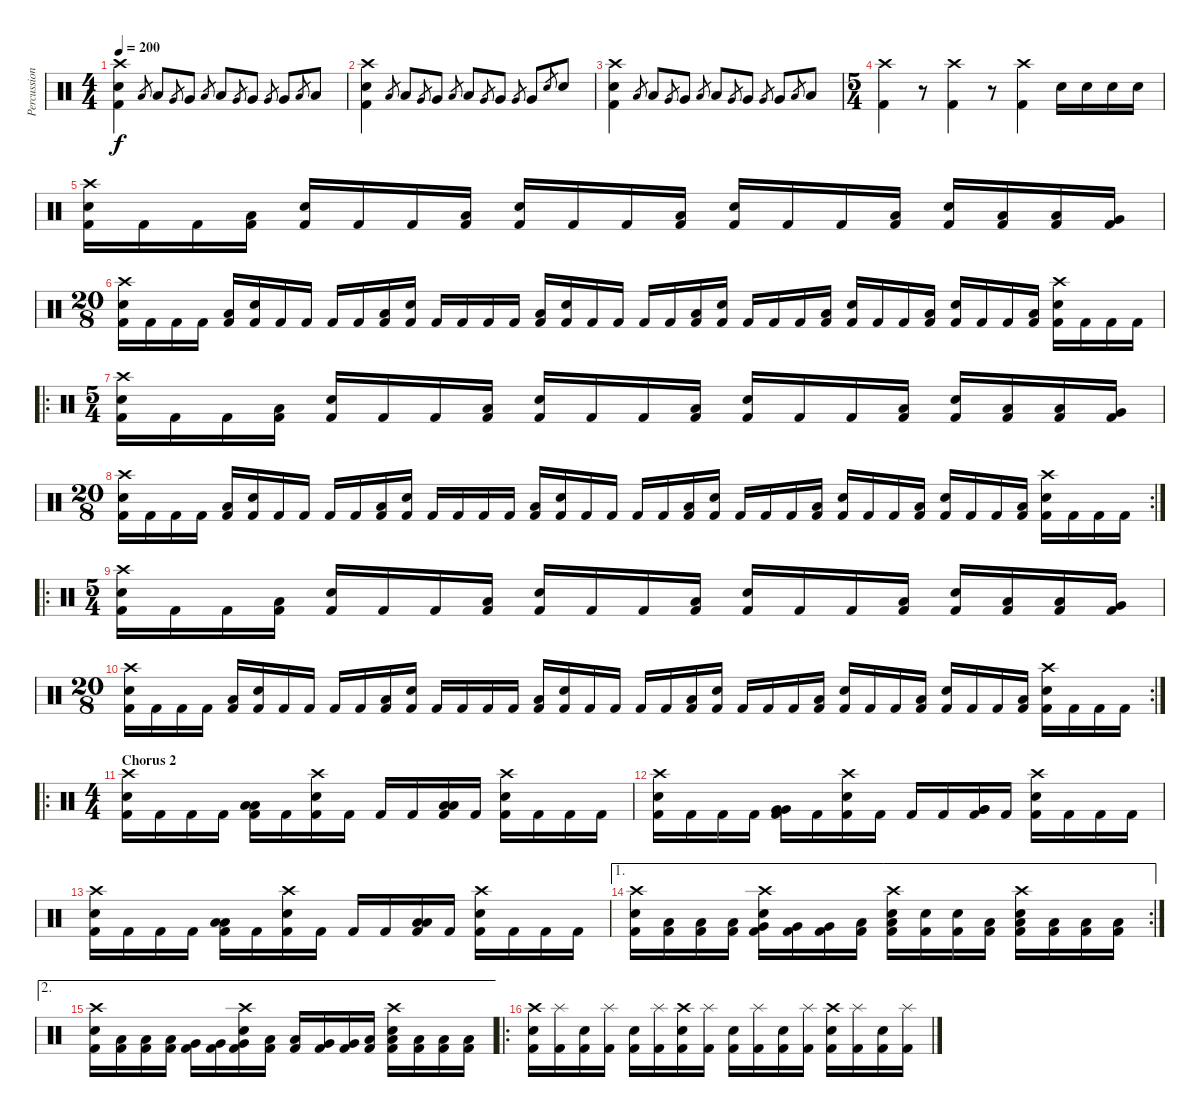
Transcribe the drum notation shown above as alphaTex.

\track ("Percussion" "Percussion") {instrument percussion}
\staff {score}
\articulation defaults
\ts (4 4)
\tempo 200
\clef neutral
\ks c
("Crash high (hit)" "Snare (hit) 2" "Kick (hit) 2").4{dy f} "Low Tom (hit)".8{gr} "Low Tom (hit)".8 "Very Low Tom (hit)".8{gr} "Very Low Tom (hit)".8 "Low Floor Tom (hit)".8{gr} "Low Floor Tom (hit)".8 "Very Low Tom (hit)".8{gr} "Very Low Tom (hit)".8 "Very Low Tom (hit)".8{gr} "Very Low Tom (hit)".8 "Low Floor Tom (hit)".8{gr} "Low Floor Tom (hit)".8 |
("Crash high (hit)" "Snare (hit) 2" "Kick (hit) 2").4 "Low Tom (hit)".8{gr} "Low Tom (hit)".8 "Very Low Tom (hit)".8{gr} "Very Low Tom (hit)".8 "Low Floor Tom (hit)".8{gr} "Low Floor Tom (hit)".8 "Very Low Tom (hit)".8{gr} "Very Low Tom (hit)".8 "Very Low Tom (hit)".8{gr} "Very Low Tom (hit)".8 "Electric Snare (hit)".8{gr} "Electric Snare (hit)".8 |
("Crash high (hit)" "Snare (hit) 2" "Kick (hit) 2").4 "Low Tom (hit)".8{gr} "Low Tom (hit)".8 "Very Low Tom (hit)".8{gr} "Very Low Tom (hit)".8 "Low Floor Tom (hit)".8{gr} "Low Floor Tom (hit)".8 "Very Low Tom (hit)".8{gr} "Very Low Tom (hit)".8 "Very Low Tom (hit)".8{gr} "Very Low Tom (hit)".8 "Low Floor Tom (hit)".8{gr} "Low Floor Tom (hit)".8 |
\ts (5 4)
("Crash high (hit)" "Kick (hit) 2").4 r.8 ("Crash high (hit)" "Kick (hit) 2").4 r.8 ("Crash high (hit)" "Kick (hit) 2").4 "Electric Snare (hit)".16 "Electric Snare (hit)".16 "Electric Snare (hit)".16 "Electric Snare (hit)".16 |
("Crash high (hit)" "Snare (hit) 2" "Kick (hit) 2").16 "Kick (hit) 2".16 "Kick (hit) 2".16 ("Low Tom (hit)" "Kick (hit) 2").16 ("Snare (hit) 2" "Kick (hit) 2").16 "Kick (hit) 2".16 "Kick (hit) 2".16 ("Low Tom (hit)" "Kick (hit) 2").16 ("Snare (hit) 2" "Kick (hit) 2").16 "Kick (hit) 2".16 "Kick (hit) 2".16 ("Low Tom (hit)" "Kick (hit) 2").16 ("Snare (hit) 2" "Kick (hit) 2").16 "Kick (hit) 2".16 "Kick (hit) 2".16 ("Low Tom (hit)" "Kick (hit) 2").16 ("Snare (hit) 2" "Kick (hit) 2").16 ("Low Tom (hit)" "Kick (hit) 2").16 ("Low Tom (hit)" "Kick (hit) 2").16 ("Very Low Tom (hit)" "Kick (hit) 2").16 |
\ts (20 8)
("Crash high (hit)" "Snare (hit) 2" "Kick (hit) 2").16 "Kick (hit) 2".16 "Kick (hit) 2".16 "Kick (hit) 2".16 ("Low Tom (hit)" "Kick (hit) 2").16 ("Snare (hit) 2" "Kick (hit) 2").16 "Kick (hit) 2".16 "Kick (hit) 2".16 "Kick (hit) 2".16 "Kick (hit) 2".16 ("Low Tom (hit)" "Kick (hit) 2").16 ("Snare (hit) 2" "Kick (hit) 2").16 "Kick (hit) 2".16 "Kick (hit) 2".16 "Kick (hit) 2".16 "Kick (hit) 2".16 ("Low Tom (hit)" "Kick (hit) 2").16 ("Snare (hit) 2" "Kick (hit) 2").16 "Kick (hit) 2".16 "Kick (hit) 2".16 "Kick (hit) 2".16 "Kick (hit) 2".16 ("Low Tom (hit)" "Kick (hit) 2").16 ("Snare (hit) 2" "Kick (hit) 2").16 "Kick (hit) 2".16 "Kick (hit) 2".16 "Kick (hit) 2".16 ("Low Tom (hit)" "Kick (hit) 2").16 ("Snare (hit) 2" "Kick (hit) 2").16 "Kick (hit) 2".16 "Kick (hit) 2".16 ("Low Tom (hit)" "Kick (hit) 2").16 ("Snare (hit) 2" "Kick (hit) 2").16 "Kick (hit) 2".16 "Kick (hit) 2".16 ("Low Tom (hit)" "Kick (hit) 2").16 ("Crash high (hit)" "Snare (hit) 2" "Kick (hit) 2").16 "Kick (hit) 2".16 "Kick (hit) 2".16 "Kick (hit) 2".16 |
\ro
\ts (5 4)
("Crash high (hit)" "Snare (hit) 2" "Kick (hit) 2").16 "Kick (hit) 2".16 "Kick (hit) 2".16 ("Low Tom (hit)" "Kick (hit) 2").16 ("Snare (hit) 2" "Kick (hit) 2").16 "Kick (hit) 2".16 "Kick (hit) 2".16 ("Low Tom (hit)" "Kick (hit) 2").16 ("Snare (hit) 2" "Kick (hit) 2").16 "Kick (hit) 2".16 "Kick (hit) 2".16 ("Low Tom (hit)" "Kick (hit) 2").16 ("Snare (hit) 2" "Kick (hit) 2").16 "Kick (hit) 2".16 "Kick (hit) 2".16 ("Low Tom (hit)" "Kick (hit) 2").16 ("Snare (hit) 2" "Kick (hit) 2").16 ("Low Tom (hit)" "Kick (hit) 2").16 ("Low Tom (hit)" "Kick (hit) 2").16 ("Very Low Tom (hit)" "Kick (hit) 2").16 |
\rc 2
\ts (20 8)
("Crash high (hit)" "Snare (hit) 2" "Kick (hit) 2").16 "Kick (hit) 2".16 "Kick (hit) 2".16 "Kick (hit) 2".16 ("Low Tom (hit)" "Kick (hit) 2").16 ("Snare (hit) 2" "Kick (hit) 2").16 "Kick (hit) 2".16 "Kick (hit) 2".16 "Kick (hit) 2".16 "Kick (hit) 2".16 ("Low Tom (hit)" "Kick (hit) 2").16 ("Snare (hit) 2" "Kick (hit) 2").16 "Kick (hit) 2".16 "Kick (hit) 2".16 "Kick (hit) 2".16 "Kick (hit) 2".16 ("Low Tom (hit)" "Kick (hit) 2").16 ("Snare (hit) 2" "Kick (hit) 2").16 "Kick (hit) 2".16 "Kick (hit) 2".16 "Kick (hit) 2".16 "Kick (hit) 2".16 ("Low Tom (hit)" "Kick (hit) 2").16 ("Snare (hit) 2" "Kick (hit) 2").16 "Kick (hit) 2".16 "Kick (hit) 2".16 "Kick (hit) 2".16 ("Low Tom (hit)" "Kick (hit) 2").16 ("Snare (hit) 2" "Kick (hit) 2").16 "Kick (hit) 2".16 "Kick (hit) 2".16 ("Low Tom (hit)" "Kick (hit) 2").16 ("Snare (hit) 2" "Kick (hit) 2").16 "Kick (hit) 2".16 "Kick (hit) 2".16 ("Low Tom (hit)" "Kick (hit) 2").16 ("Crash high (hit)" "Snare (hit) 2" "Kick (hit) 2").16 "Kick (hit) 2".16 "Kick (hit) 2".16 "Kick (hit) 2".16 |
\ro
\ts (5 4)
("Crash high (hit)" "Snare (hit) 2" "Kick (hit) 2").16 "Kick (hit) 2".16 "Kick (hit) 2".16 ("Low Tom (hit)" "Kick (hit) 2").16 ("Snare (hit) 2" "Kick (hit) 2").16 "Kick (hit) 2".16 "Kick (hit) 2".16 ("Low Tom (hit)" "Kick (hit) 2").16 ("Snare (hit) 2" "Kick (hit) 2").16 "Kick (hit) 2".16 "Kick (hit) 2".16 ("Low Tom (hit)" "Kick (hit) 2").16 ("Snare (hit) 2" "Kick (hit) 2").16 "Kick (hit) 2".16 "Kick (hit) 2".16 ("Low Tom (hit)" "Kick (hit) 2").16 ("Snare (hit) 2" "Kick (hit) 2").16 ("Low Tom (hit)" "Kick (hit) 2").16 ("Low Tom (hit)" "Kick (hit) 2").16 ("Very Low Tom (hit)" "Kick (hit) 2").16 |
\rc 2
\ts (20 8)
("Crash high (hit)" "Snare (hit) 2" "Kick (hit) 2").16 "Kick (hit) 2".16 "Kick (hit) 2".16 "Kick (hit) 2".16 ("Low Tom (hit)" "Kick (hit) 2").16 ("Snare (hit) 2" "Kick (hit) 2").16 "Kick (hit) 2".16 "Kick (hit) 2".16 "Kick (hit) 2".16 "Kick (hit) 2".16 ("Low Tom (hit)" "Kick (hit) 2").16 ("Snare (hit) 2" "Kick (hit) 2").16 "Kick (hit) 2".16 "Kick (hit) 2".16 "Kick (hit) 2".16 "Kick (hit) 2".16 ("Low Tom (hit)" "Kick (hit) 2").16 ("Snare (hit) 2" "Kick (hit) 2").16 "Kick (hit) 2".16 "Kick (hit) 2".16 "Kick (hit) 2".16 "Kick (hit) 2".16 ("Low Tom (hit)" "Kick (hit) 2").16 ("Snare (hit) 2" "Kick (hit) 2").16 "Kick (hit) 2".16 "Kick (hit) 2".16 "Kick (hit) 2".16 ("Low Tom (hit)" "Kick (hit) 2").16 ("Snare (hit) 2" "Kick (hit) 2").16 "Kick (hit) 2".16 "Kick (hit) 2".16 ("Low Tom (hit)" "Kick (hit) 2").16 ("Snare (hit) 2" "Kick (hit) 2").16 "Kick (hit) 2".16 "Kick (hit) 2".16 ("Low Tom (hit)" "Kick (hit) 2").16 ("Crash high (hit)" "Snare (hit) 2" "Kick (hit) 2").16 "Kick (hit) 2".16 "Kick (hit) 2".16 "Kick (hit) 2".16 |
\ro
\ts (4 4)
\section ("" "Chorus 2")
("Crash high (hit)" "Snare (hit) 2" "Kick (hit) 2").16 "Kick (hit) 2".16 "Kick (hit) 2".16 "Kick (hit) 2".16 ("Low Tom (hit)" "Low Tom (hit)" "Kick (hit) 2").16 "Kick (hit) 2".16 ("Crash high (hit)" "Snare (hit) 2" "Kick (hit) 2").16 "Kick (hit) 2".16 "Kick (hit) 2".16 "Kick (hit) 2".16 ("Low Tom (hit)" "Low Tom (hit)" "Kick (hit) 2").16 "Kick (hit) 2".16 ("Crash high (hit)" "Snare (hit) 2" "Kick (hit) 2").16 "Kick (hit) 2".16 "Kick (hit) 2".16 "Kick (hit) 2".16 |
("Crash high (hit)" "Snare (hit) 2" "Kick (hit) 2").16 "Kick (hit) 2".16 "Kick (hit) 2".16 "Kick (hit) 2".16 ("Very Low Tom (hit)" "Very Low Tom (hit)" "Kick (hit) 2").16 "Kick (hit) 2".16 ("Crash high (hit)" "Snare (hit) 2" "Kick (hit) 2").16 "Kick (hit) 2".16 "Kick (hit) 2".16 "Kick (hit) 2".16 ("Very Low Tom (hit)" "Very Low Tom (hit)" "Kick (hit) 2").16 "Kick (hit) 2".16 ("Crash high (hit)" "Snare (hit) 2" "Kick (hit) 2").16 "Kick (hit) 2".16 "Kick (hit) 2".16 "Kick (hit) 2".16 |
("Crash high (hit)" "Snare (hit) 2" "Kick (hit) 2").16 "Kick (hit) 2".16 "Kick (hit) 2".16 "Kick (hit) 2".16 ("Low Floor Tom (hit)" "Low Floor Tom (hit)" "Kick (hit) 2").16 "Kick (hit) 2".16 ("Crash high (hit)" "Snare (hit) 2" "Kick (hit) 2").16 "Kick (hit) 2".16 "Kick (hit) 2".16 "Kick (hit) 2".16 ("Low Floor Tom (hit)" "Low Floor Tom (hit)" "Kick (hit) 2").16 "Kick (hit) 2".16 ("Crash high (hit)" "Snare (hit) 2" "Kick (hit) 2").16 "Kick (hit) 2".16 "Kick (hit) 2".16 "Kick (hit) 2".16 |
\ae 1
\rc 2
("Crash high (hit)" "Snare (hit) 2" "Kick (hit) 2").16 ("Low Tom (hit)" "Kick (hit) 2").16 ("Low Tom (hit)" "Kick (hit) 2").16 ("Low Tom (hit)" "Kick (hit) 2").16 ("Very Low Tom (hit)" "Crash high (hit)" "Snare (hit) 2" "Kick (hit) 2").16 ("Very Low Tom (hit)" "Kick (hit) 2").16 ("Very Low Tom (hit)" "Kick (hit) 2").16 ("Low Floor Tom (hit)" "Kick (hit) 2").16 ("Low Floor Tom (hit)" "Crash high (hit)" "Snare (hit) 2" "Kick (hit) 2").16 ("Electric Snare (hit)" "Kick (hit) 2").16 ("Electric Snare (hit)" "Kick (hit) 2").16 ("Low Tom (hit)" "Kick (hit) 2").16 ("Low Tom (hit)" "Crash high (hit)" "Snare (hit) 2" "Kick (hit) 2").16 ("Low Floor Tom (hit)" "Kick (hit) 2").16 ("Low Floor Tom (hit)" "Kick (hit) 2").16 ("Low Floor Tom (hit)" "Kick (hit) 2").16 |
\ae 2
("Crash high (hit)" "Snare (hit) 2" "Kick (hit) 2").16 ("Low Tom (hit)" "Kick (hit) 2").16 ("Low Tom (hit)" "Kick (hit) 2").16 ("Low Tom (hit)" "Kick (hit) 2").16 ("Very Low Tom (hit)" "Kick (hit) 2").16 ("Very Low Tom (hit)" "Kick (hit) 2").16 ("Very Low Tom (hit)" "Crash high (hit)" "Snare (hit) 2" "Kick (hit) 2").16 ("Low Floor Tom (hit)" "Kick (hit) 2").16 ("Low Floor Tom (hit)" "Kick (hit) 2").16 ("Very Low Tom (hit)" "Kick (hit) 2").16 ("Very Low Tom (hit)" "Kick (hit) 2").16 ("Low Tom (hit)" "Kick (hit) 2").16 ("Low Tom (hit)" "Crash high (hit)" "Snare (hit) 2" "Kick (hit) 2").16 ("Low Floor Tom (hit)" "Kick (hit) 2").16 ("Low Floor Tom (hit)" "Kick (hit) 2").16 ("Low Floor Tom (hit)" "Kick (hit) 2").16 |
\ro
("Crash high (hit)" "Snare (hit) 2" "Kick (hit) 2").16 ("Splash (hit)" "Kick (hit) 2").16 ("Snare (hit) 2" "Kick (hit) 2").16 ("Splash (hit)" "Kick (hit) 2").16 ("Snare (hit) 2" "Kick (hit) 2").16 ("Splash (hit)" "Kick (hit) 2").16 ("Crash high (hit)" "Snare (hit) 2" "Kick (hit) 2").16 ("Splash (hit)" "Kick (hit) 2").16 ("Snare (hit) 2" "Kick (hit) 2").16 ("Splash (hit)" "Kick (hit) 2").16 ("Snare (hit) 2" "Kick (hit) 2").16 ("Splash (hit)" "Kick (hit) 2").16 ("Crash high (hit)" "Snare (hit) 2" "Kick (hit) 2").16 ("Splash (hit)" "Kick (hit) 2").16 ("Snare (hit) 2" "Kick (hit) 2").16 ("Splash (hit)" "Kick (hit) 2").16
